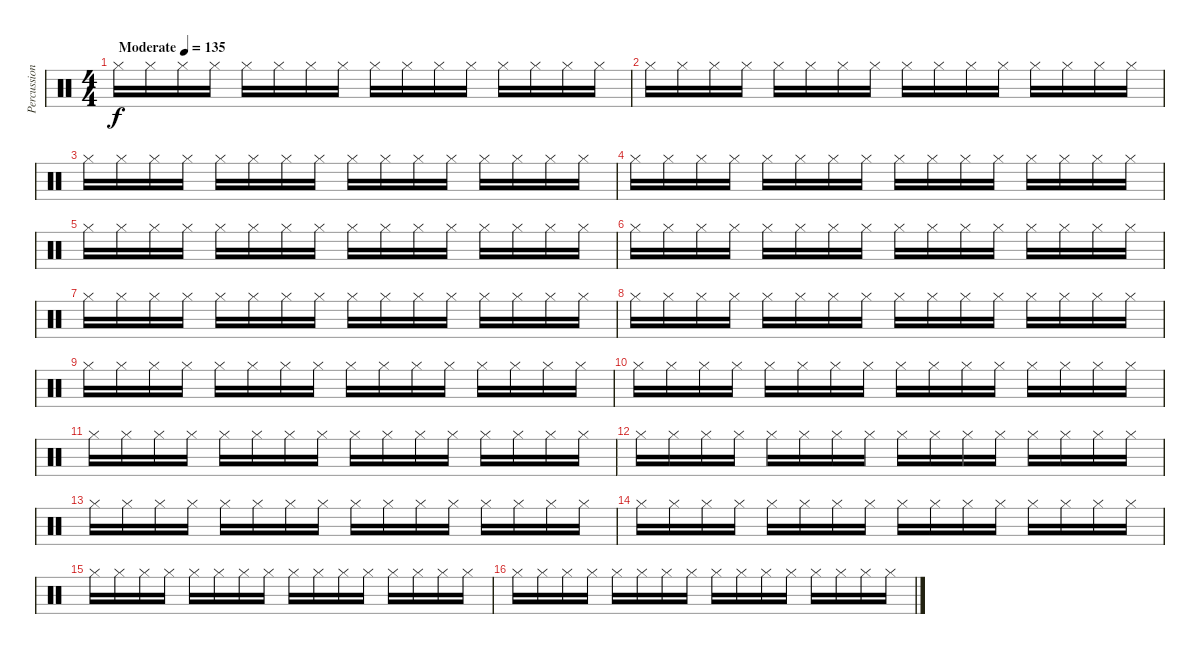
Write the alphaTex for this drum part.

\track ("Percussion" "Percussion") {instrument percussion}
\staff {score}
\articulation defaults
\ts (4 4)
\tempo (135 "Moderate")
\clef neutral
\ks c "Hi-Hat (closed)".16{dy f} "Hi-Hat (closed)".16 "Hi-Hat (closed)".16 "Hi-Hat (closed)".16 "Hi-Hat (closed)".16 "Hi-Hat (closed)".16 "Hi-Hat (closed)".16 "Hi-Hat (closed)".16 "Hi-Hat (closed)".16 "Hi-Hat (closed)".16 "Hi-Hat (closed)".16 "Hi-Hat (closed)".16 "Hi-Hat (closed)".16 "Hi-Hat (closed)".16 "Hi-Hat (closed)".16 "Hi-Hat (closed)".16
|
"Hi-Hat (closed)".16 "Hi-Hat (closed)".16 "Hi-Hat (closed)".16 "Hi-Hat (closed)".16 "Hi-Hat (closed)".16 "Hi-Hat (closed)".16 "Hi-Hat (closed)".16 "Hi-Hat (closed)".16 "Hi-Hat (closed)".16 "Hi-Hat (closed)".16 "Hi-Hat (closed)".16 "Hi-Hat (closed)".16 "Hi-Hat (closed)".16 "Hi-Hat (closed)".16 "Hi-Hat (closed)".16 "Hi-Hat (closed)".16 |
"Hi-Hat (closed)".16 "Hi-Hat (closed)".16 "Hi-Hat (closed)".16 "Hi-Hat (closed)".16 "Hi-Hat (closed)".16 "Hi-Hat (closed)".16 "Hi-Hat (closed)".16 "Hi-Hat (closed)".16 "Hi-Hat (closed)".16 "Hi-Hat (closed)".16 "Hi-Hat (closed)".16 "Hi-Hat (closed)".16 "Hi-Hat (closed)".16 "Hi-Hat (closed)".16 "Hi-Hat (closed)".16 "Hi-Hat (closed)".16 |
"Hi-Hat (closed)".16 "Hi-Hat (closed)".16 "Hi-Hat (closed)".16 "Hi-Hat (closed)".16 "Hi-Hat (closed)".16 "Hi-Hat (closed)".16 "Hi-Hat (closed)".16 "Hi-Hat (closed)".16 "Hi-Hat (closed)".16 "Hi-Hat (closed)".16 "Hi-Hat (closed)".16 "Hi-Hat (closed)".16 "Hi-Hat (closed)".16 "Hi-Hat (closed)".16 "Hi-Hat (closed)".16 "Hi-Hat (closed)".16 |
"Hi-Hat (closed)".16 "Hi-Hat (closed)".16 "Hi-Hat (closed)".16 "Hi-Hat (closed)".16 "Hi-Hat (closed)".16 "Hi-Hat (closed)".16 "Hi-Hat (closed)".16 "Hi-Hat (closed)".16 "Hi-Hat (closed)".16 "Hi-Hat (closed)".16 "Hi-Hat (closed)".16 "Hi-Hat (closed)".16 "Hi-Hat (closed)".16 "Hi-Hat (closed)".16 "Hi-Hat (closed)".16 "Hi-Hat (closed)".16 |
"Hi-Hat (closed)".16 "Hi-Hat (closed)".16 "Hi-Hat (closed)".16 "Hi-Hat (closed)".16 "Hi-Hat (closed)".16 "Hi-Hat (closed)".16 "Hi-Hat (closed)".16 "Hi-Hat (closed)".16 "Hi-Hat (closed)".16 "Hi-Hat (closed)".16 "Hi-Hat (closed)".16 "Hi-Hat (closed)".16 "Hi-Hat (closed)".16 "Hi-Hat (closed)".16 "Hi-Hat (closed)".16 "Hi-Hat (closed)".16 |
"Hi-Hat (closed)".16 "Hi-Hat (closed)".16 "Hi-Hat (closed)".16 "Hi-Hat (closed)".16 "Hi-Hat (closed)".16 "Hi-Hat (closed)".16 "Hi-Hat (closed)".16 "Hi-Hat (closed)".16 "Hi-Hat (closed)".16 "Hi-Hat (closed)".16 "Hi-Hat (closed)".16 "Hi-Hat (closed)".16 "Hi-Hat (closed)".16 "Hi-Hat (closed)".16 "Hi-Hat (closed)".16 "Hi-Hat (closed)".16 |
"Hi-Hat (closed)".16 "Hi-Hat (closed)".16 "Hi-Hat (closed)".16 "Hi-Hat (closed)".16 "Hi-Hat (closed)".16 "Hi-Hat (closed)".16 "Hi-Hat (closed)".16 "Hi-Hat (closed)".16 "Hi-Hat (closed)".16 "Hi-Hat (closed)".16 "Hi-Hat (closed)".16 "Hi-Hat (closed)".16 "Hi-Hat (closed)".16 "Hi-Hat (closed)".16 "Hi-Hat (closed)".16 "Hi-Hat (closed)".16 |
"Hi-Hat (closed)".16 "Hi-Hat (closed)".16 "Hi-Hat (closed)".16 "Hi-Hat (closed)".16 "Hi-Hat (closed)".16 "Hi-Hat (closed)".16 "Hi-Hat (closed)".16 "Hi-Hat (closed)".16 "Hi-Hat (closed)".16 "Hi-Hat (closed)".16 "Hi-Hat (closed)".16 "Hi-Hat (closed)".16 "Hi-Hat (closed)".16 "Hi-Hat (closed)".16 "Hi-Hat (closed)".16 "Hi-Hat (closed)".16 |
"Hi-Hat (closed)".16 "Hi-Hat (closed)".16 "Hi-Hat (closed)".16 "Hi-Hat (closed)".16 "Hi-Hat (closed)".16 "Hi-Hat (closed)".16 "Hi-Hat (closed)".16 "Hi-Hat (closed)".16 "Hi-Hat (closed)".16 "Hi-Hat (closed)".16 "Hi-Hat (closed)".16 "Hi-Hat (closed)".16 "Hi-Hat (closed)".16 "Hi-Hat (closed)".16 "Hi-Hat (closed)".16 "Hi-Hat (closed)".16 |
"Hi-Hat (closed)".16 "Hi-Hat (closed)".16 "Hi-Hat (closed)".16 "Hi-Hat (closed)".16 "Hi-Hat (closed)".16 "Hi-Hat (closed)".16 "Hi-Hat (closed)".16 "Hi-Hat (closed)".16 "Hi-Hat (closed)".16 "Hi-Hat (closed)".16 "Hi-Hat (closed)".16 "Hi-Hat (closed)".16 "Hi-Hat (closed)".16 "Hi-Hat (closed)".16 "Hi-Hat (closed)".16 "Hi-Hat (closed)".16 |
"Hi-Hat (closed)".16 "Hi-Hat (closed)".16 "Hi-Hat (closed)".16 "Hi-Hat (closed)".16 "Hi-Hat (closed)".16 "Hi-Hat (closed)".16 "Hi-Hat (closed)".16 "Hi-Hat (closed)".16 "Hi-Hat (closed)".16 "Hi-Hat (closed)".16 "Hi-Hat (closed)".16 "Hi-Hat (closed)".16 "Hi-Hat (closed)".16 "Hi-Hat (closed)".16 "Hi-Hat (closed)".16 "Hi-Hat (closed)".16 |
"Hi-Hat (closed)".16 "Hi-Hat (closed)".16 "Hi-Hat (closed)".16 "Hi-Hat (closed)".16 "Hi-Hat (closed)".16 "Hi-Hat (closed)".16 "Hi-Hat (closed)".16 "Hi-Hat (closed)".16 "Hi-Hat (closed)".16 "Hi-Hat (closed)".16 "Hi-Hat (closed)".16 "Hi-Hat (closed)".16 "Hi-Hat (closed)".16 "Hi-Hat (closed)".16 "Hi-Hat (closed)".16 "Hi-Hat (closed)".16 |
"Hi-Hat (closed)".16 "Hi-Hat (closed)".16 "Hi-Hat (closed)".16 "Hi-Hat (closed)".16 "Hi-Hat (closed)".16 "Hi-Hat (closed)".16 "Hi-Hat (closed)".16 "Hi-Hat (closed)".16 "Hi-Hat (closed)".16 "Hi-Hat (closed)".16 "Hi-Hat (closed)".16 "Hi-Hat (closed)".16 "Hi-Hat (closed)".16 "Hi-Hat (closed)".16 "Hi-Hat (closed)".16 "Hi-Hat (closed)".16 |
"Hi-Hat (closed)".16 "Hi-Hat (closed)".16 "Hi-Hat (closed)".16 "Hi-Hat (closed)".16 "Hi-Hat (closed)".16 "Hi-Hat (closed)".16 "Hi-Hat (closed)".16 "Hi-Hat (closed)".16 "Hi-Hat (closed)".16 "Hi-Hat (closed)".16 "Hi-Hat (closed)".16 "Hi-Hat (closed)".16 "Hi-Hat (closed)".16 "Hi-Hat (closed)".16 "Hi-Hat (closed)".16 "Hi-Hat (closed)".16 |
"Hi-Hat (closed)".16 "Hi-Hat (closed)".16 "Hi-Hat (closed)".16 "Hi-Hat (closed)".16 "Hi-Hat (closed)".16 "Hi-Hat (closed)".16 "Hi-Hat (closed)".16 "Hi-Hat (closed)".16 "Hi-Hat (closed)".16 "Hi-Hat (closed)".16 "Hi-Hat (closed)".16 "Hi-Hat (closed)".16 "Hi-Hat (closed)".16 "Hi-Hat (closed)".16 "Hi-Hat (closed)".16 "Hi-Hat (closed)".16
